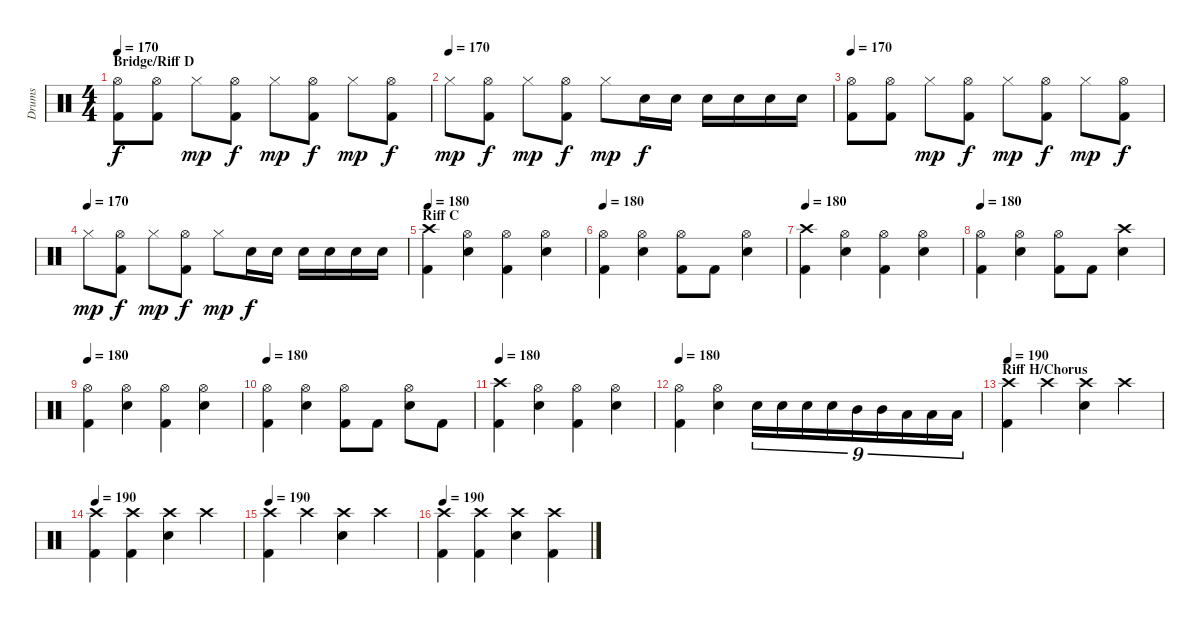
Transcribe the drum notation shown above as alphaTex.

\track ("Drums" "Drums") {instrument percussion}
\staff {score}
\articulation defaults
\ts (4 4)
\section ("" "Bridge/Riff D")
\tempo 170
\clef neutral
\ks c
("Hi-Hat (open)" "Kick (hit) 2").8{dy f} ("Hi-Hat (open)" "Kick (hit) 2").8 "Hi-Hat (closed)".8{dy mp} ("Hi-Hat (open)" "Kick (hit) 2").8{dy f} "Hi-Hat (closed)".8{dy mp} ("Hi-Hat (open)" "Kick (hit) 2").8{dy f} "Hi-Hat (closed)".8{dy mp} ("Hi-Hat (open)" "Kick (hit) 2").8{dy f} |
\tempo (170)
"Hi-Hat (closed)".8{dy mp} ("Hi-Hat (open)" "Kick (hit) 2").8{dy f} "Hi-Hat (closed)".8{dy mp} ("Hi-Hat (open)" "Kick (hit) 2").8{dy f} "Hi-Hat (closed)".8{dy mp} "Electric Snare (hit)".16{dy f} "Electric Snare (hit)".16 "Electric Snare (hit)".16 "Electric Snare (hit)".16 "Electric Snare (hit)".16 "Electric Snare (hit)".16 |
\tempo 170
("Hi-Hat (open)" "Kick (hit) 2").8 ("Hi-Hat (open)" "Kick (hit) 2").8 "Hi-Hat (closed)".8{dy mp} ("Hi-Hat (open)" "Kick (hit) 2").8{dy f} "Hi-Hat (closed)".8{dy mp} ("Hi-Hat (open)" "Kick (hit) 2").8{dy f} "Hi-Hat (closed)".8{dy mp} ("Hi-Hat (open)" "Kick (hit) 2").8{dy f} |
\tempo (170)
"Hi-Hat (closed)".8{dy mp} ("Hi-Hat (open)" "Kick (hit) 2").8{dy f} "Hi-Hat (closed)".8{dy mp} ("Hi-Hat (open)" "Kick (hit) 2").8{dy f} "Hi-Hat (closed)".8{dy mp} "Electric Snare (hit)".16{dy f} "Electric Snare (hit)".16 "Electric Snare (hit)".16 "Electric Snare (hit)".16 "Electric Snare (hit)".16 "Electric Snare (hit)".16 |
\section ("" "Riff C")
\tempo 180
("Crash high (hit)" "Kick (hit) 2").4 ("Hi-Hat (open)" "Electric Snare (hit)").4 ("Hi-Hat (open)" "Kick (hit) 2").4 ("Hi-Hat (open)" "Electric Snare (hit)").4 |
\tempo 180
("Hi-Hat (open)" "Kick (hit) 2").4 ("Hi-Hat (open)" "Electric Snare (hit)").4 ("Hi-Hat (open)" "Kick (hit) 2").8 "Kick (hit) 2".8 ("Hi-Hat (open)" "Electric Snare (hit)").4 |
\tempo 180
("Crash high (hit)" "Kick (hit) 2").4 ("Hi-Hat (open)" "Electric Snare (hit)").4 ("Hi-Hat (open)" "Kick (hit) 2").4 ("Hi-Hat (open)" "Electric Snare (hit)").4 |
\tempo 180
("Hi-Hat (open)" "Kick (hit) 2").4 ("Hi-Hat (open)" "Electric Snare (hit)").4 ("Hi-Hat (open)" "Kick (hit) 2").8 "Kick (hit) 2".8 ("Crash high (hit)" "Electric Snare (hit)").4 |
\tempo 180
("Hi-Hat (open)" "Kick (hit) 2").4 ("Hi-Hat (open)" "Electric Snare (hit)").4 ("Hi-Hat (open)" "Kick (hit) 2").4 ("Hi-Hat (open)" "Electric Snare (hit)").4 |
\tempo 180
("Hi-Hat (open)" "Kick (hit) 2").4 ("Hi-Hat (open)" "Electric Snare (hit)").4 ("Hi-Hat (open)" "Kick (hit) 2").8 "Kick (hit) 2".8 ("Hi-Hat (open)" "Electric Snare (hit)").8 "Kick (hit) 2".8 |
\tempo 180
("Crash high (hit)" "Kick (hit) 2").4 ("Hi-Hat (open)" "Electric Snare (hit)").4 ("Hi-Hat (open)" "Kick (hit) 2").4 ("Hi-Hat (open)" "Electric Snare (hit)").4 |
\tempo 180
("Hi-Hat (open)" "Kick (hit) 2").4 ("Hi-Hat (open)" "Electric Snare (hit)").4 "Electric Snare (hit)".16{tu (9 8)} "Electric Snare (hit)".16{tu (9 8)} "Electric Snare (hit)".16{tu (9 8)} "Electric Snare (hit)".16{tu (9 8)} "Mid Tom (hit)".16{tu (9 8)} "Mid Tom (hit)".16{tu (9 8)} "Low Tom (hit)".16{tu (9 8)} "Low Tom (hit)".16{tu (9 8)} "Low Tom (hit)".16{tu (9 8)} |
\section ("" "Riff H/Chorus")
\tempo 190
("Crash high (hit)" "Kick (hit) 2").4 "Crash high (hit)".4 ("Crash high (hit)" "Electric Snare (hit)").4 "Crash high (hit)".4 |
\tempo 190
("Crash high (hit)" "Kick (hit) 2").4 ("Crash high (hit)" "Kick (hit) 2").4 ("Crash high (hit)" "Electric Snare (hit)").4 "Crash high (hit)".4 |
\tempo 190
("Crash high (hit)" "Kick (hit) 2").4 "Crash high (hit)".4 ("Crash high (hit)" "Electric Snare (hit)").4 "Crash high (hit)".4 |
\tempo 190
("Crash high (hit)" "Kick (hit) 2").4 ("Crash high (hit)" "Kick (hit) 2").4 ("Crash high (hit)" "Electric Snare (hit)").4 ("Crash high (hit)" "Kick (hit) 2").4
